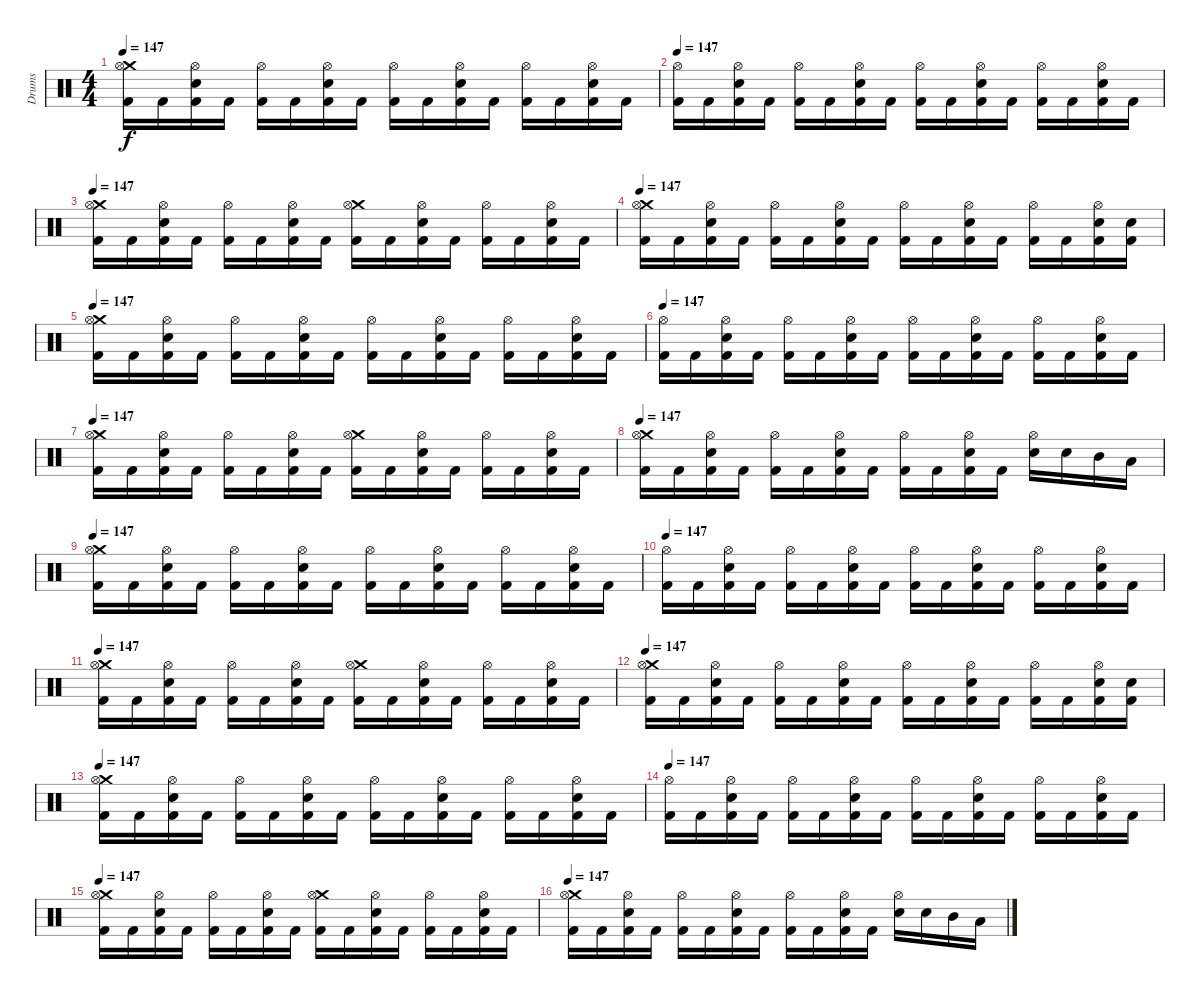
\track ("Drums" "Drums") {instrument percussion}
\staff {score}
\articulation defaults
\ts (4 4)
\tempo 147
\clef neutral
\ks c
("Crash medium (hit)" "Hi-Hat (open)" "Kick (hit) 2").16{dy f} "Kick (hit) 2".16 ("Hi-Hat (open)" "Electric Snare (hit)" "Kick (hit) 2").16 "Kick (hit) 2".16 ("Hi-Hat (open)" "Kick (hit) 2").16 "Kick (hit) 2".16 ("Hi-Hat (open)" "Electric Snare (hit)" "Kick (hit) 2").16 "Kick (hit) 2".16 ("Hi-Hat (open)" "Kick (hit) 2").16 "Kick (hit) 2".16 ("Hi-Hat (open)" "Electric Snare (hit)" "Kick (hit) 2").16 "Kick (hit) 2".16 ("Hi-Hat (open)" "Kick (hit) 2").16 "Kick (hit) 2".16 ("Hi-Hat (open)" "Electric Snare (hit)" "Kick (hit) 2").16 "Kick (hit) 2".16 |
\tempo 147
("Hi-Hat (open)" "Kick (hit) 2").16 "Kick (hit) 2".16 ("Hi-Hat (open)" "Electric Snare (hit)" "Kick (hit) 2").16 "Kick (hit) 2".16 ("Hi-Hat (open)" "Kick (hit) 2").16 "Kick (hit) 2".16 ("Hi-Hat (open)" "Electric Snare (hit)" "Kick (hit) 2").16 "Kick (hit) 2".16 ("Hi-Hat (open)" "Kick (hit) 2").16 "Kick (hit) 2".16 ("Hi-Hat (open)" "Electric Snare (hit)" "Kick (hit) 2").16 "Kick (hit) 2".16 ("Hi-Hat (open)" "Kick (hit) 2").16 "Kick (hit) 2".16 ("Hi-Hat (open)" "Electric Snare (hit)" "Kick (hit) 2").16 "Kick (hit) 2".16 |
\tempo 147
("Crash medium (hit)" "Hi-Hat (open)" "Kick (hit) 2").16 "Kick (hit) 2".16 ("Hi-Hat (open)" "Electric Snare (hit)" "Kick (hit) 2").16 "Kick (hit) 2".16 ("Hi-Hat (open)" "Kick (hit) 2").16 "Kick (hit) 2".16 ("Hi-Hat (open)" "Electric Snare (hit)" "Kick (hit) 2").16 "Kick (hit) 2".16 ("Crash medium (hit)" "Hi-Hat (open)" "Kick (hit) 2").16 "Kick (hit) 2".16 ("Hi-Hat (open)" "Electric Snare (hit)" "Kick (hit) 2").16 "Kick (hit) 2".16 ("Hi-Hat (open)" "Kick (hit) 2").16 "Kick (hit) 2".16 ("Hi-Hat (open)" "Electric Snare (hit)" "Kick (hit) 2").16 "Kick (hit) 2".16 |
\tempo 147
("Crash medium (hit)" "Hi-Hat (open)" "Kick (hit) 2").16 "Kick (hit) 2".16 ("Hi-Hat (open)" "Electric Snare (hit)" "Kick (hit) 2").16 "Kick (hit) 2".16 ("Hi-Hat (open)" "Kick (hit) 2").16 "Kick (hit) 2".16 ("Hi-Hat (open)" "Electric Snare (hit)" "Kick (hit) 2").16 "Kick (hit) 2".16 ("Hi-Hat (open)" "Kick (hit) 2").16 "Kick (hit) 2".16 ("Hi-Hat (open)" "Electric Snare (hit)" "Kick (hit) 2").16 "Kick (hit) 2".16 ("Hi-Hat (open)" "Kick (hit) 2").16 "Kick (hit) 2".16 ("Hi-Hat (open)" "Electric Snare (hit)" "Kick (hit) 2").16 ("Electric Snare (hit)" "Kick (hit) 2").16 |
\tempo 147
("Crash medium (hit)" "Hi-Hat (open)" "Kick (hit) 2").16 "Kick (hit) 2".16 ("Hi-Hat (open)" "Electric Snare (hit)" "Kick (hit) 2").16 "Kick (hit) 2".16 ("Hi-Hat (open)" "Kick (hit) 2").16 "Kick (hit) 2".16 ("Hi-Hat (open)" "Electric Snare (hit)" "Kick (hit) 2").16 "Kick (hit) 2".16 ("Hi-Hat (open)" "Kick (hit) 2").16 "Kick (hit) 2".16 ("Hi-Hat (open)" "Electric Snare (hit)" "Kick (hit) 2").16 "Kick (hit) 2".16 ("Hi-Hat (open)" "Kick (hit) 2").16 "Kick (hit) 2".16 ("Hi-Hat (open)" "Electric Snare (hit)" "Kick (hit) 2").16 "Kick (hit) 2".16 |
\tempo 147
("Hi-Hat (open)" "Kick (hit) 2").16 "Kick (hit) 2".16 ("Hi-Hat (open)" "Electric Snare (hit)" "Kick (hit) 2").16 "Kick (hit) 2".16 ("Hi-Hat (open)" "Kick (hit) 2").16 "Kick (hit) 2".16 ("Hi-Hat (open)" "Electric Snare (hit)" "Kick (hit) 2").16 "Kick (hit) 2".16 ("Hi-Hat (open)" "Kick (hit) 2").16 "Kick (hit) 2".16 ("Hi-Hat (open)" "Electric Snare (hit)" "Kick (hit) 2").16 "Kick (hit) 2".16 ("Hi-Hat (open)" "Kick (hit) 2").16 "Kick (hit) 2".16 ("Hi-Hat (open)" "Electric Snare (hit)" "Kick (hit) 2").16 "Kick (hit) 2".16 |
\tempo 147
("Crash medium (hit)" "Hi-Hat (open)" "Kick (hit) 2").16 "Kick (hit) 2".16 ("Hi-Hat (open)" "Electric Snare (hit)" "Kick (hit) 2").16 "Kick (hit) 2".16 ("Hi-Hat (open)" "Kick (hit) 2").16 "Kick (hit) 2".16 ("Hi-Hat (open)" "Electric Snare (hit)" "Kick (hit) 2").16 "Kick (hit) 2".16 ("Crash medium (hit)" "Hi-Hat (open)" "Kick (hit) 2").16 "Kick (hit) 2".16 ("Hi-Hat (open)" "Electric Snare (hit)" "Kick (hit) 2").16 "Kick (hit) 2".16 ("Hi-Hat (open)" "Kick (hit) 2").16 "Kick (hit) 2".16 ("Hi-Hat (open)" "Electric Snare (hit)" "Kick (hit) 2").16 "Kick (hit) 2".16 |
\tempo 147
("Crash medium (hit)" "Hi-Hat (open)" "Kick (hit) 2").16 "Kick (hit) 2".16 ("Hi-Hat (open)" "Electric Snare (hit)" "Kick (hit) 2").16 "Kick (hit) 2".16 ("Hi-Hat (open)" "Kick (hit) 2").16 "Kick (hit) 2".16 ("Hi-Hat (open)" "Electric Snare (hit)" "Kick (hit) 2").16 "Kick (hit) 2".16 ("Hi-Hat (open)" "Kick (hit) 2").16 "Kick (hit) 2".16 ("Hi-Hat (open)" "Electric Snare (hit)" "Kick (hit) 2").16 "Kick (hit) 2".16 ("Hi-Hat (open)" "Electric Snare (hit)").16 "Electric Snare (hit)".16 "Mid Tom (hit)".16 "Low Tom (hit)".16 |
\tempo 147
("Crash medium (hit)" "Hi-Hat (open)" "Kick (hit) 2").16 "Kick (hit) 2".16 ("Hi-Hat (open)" "Electric Snare (hit)" "Kick (hit) 2").16 "Kick (hit) 2".16 ("Hi-Hat (open)" "Kick (hit) 2").16 "Kick (hit) 2".16 ("Hi-Hat (open)" "Electric Snare (hit)" "Kick (hit) 2").16 "Kick (hit) 2".16 ("Hi-Hat (open)" "Kick (hit) 2").16 "Kick (hit) 2".16 ("Hi-Hat (open)" "Electric Snare (hit)" "Kick (hit) 2").16 "Kick (hit) 2".16 ("Hi-Hat (open)" "Kick (hit) 2").16 "Kick (hit) 2".16 ("Hi-Hat (open)" "Electric Snare (hit)" "Kick (hit) 2").16 "Kick (hit) 2".16 |
\tempo 147
("Hi-Hat (open)" "Kick (hit) 2").16 "Kick (hit) 2".16 ("Hi-Hat (open)" "Electric Snare (hit)" "Kick (hit) 2").16 "Kick (hit) 2".16 ("Hi-Hat (open)" "Kick (hit) 2").16 "Kick (hit) 2".16 ("Hi-Hat (open)" "Electric Snare (hit)" "Kick (hit) 2").16 "Kick (hit) 2".16 ("Hi-Hat (open)" "Kick (hit) 2").16 "Kick (hit) 2".16 ("Hi-Hat (open)" "Electric Snare (hit)" "Kick (hit) 2").16 "Kick (hit) 2".16 ("Hi-Hat (open)" "Kick (hit) 2").16 "Kick (hit) 2".16 ("Hi-Hat (open)" "Electric Snare (hit)" "Kick (hit) 2").16 "Kick (hit) 2".16 |
\tempo 147
("Crash medium (hit)" "Hi-Hat (open)" "Kick (hit) 2").16 "Kick (hit) 2".16 ("Hi-Hat (open)" "Electric Snare (hit)" "Kick (hit) 2").16 "Kick (hit) 2".16 ("Hi-Hat (open)" "Kick (hit) 2").16 "Kick (hit) 2".16 ("Hi-Hat (open)" "Electric Snare (hit)" "Kick (hit) 2").16 "Kick (hit) 2".16 ("Crash medium (hit)" "Hi-Hat (open)" "Kick (hit) 2").16 "Kick (hit) 2".16 ("Hi-Hat (open)" "Electric Snare (hit)" "Kick (hit) 2").16 "Kick (hit) 2".16 ("Hi-Hat (open)" "Kick (hit) 2").16 "Kick (hit) 2".16 ("Hi-Hat (open)" "Electric Snare (hit)" "Kick (hit) 2").16 "Kick (hit) 2".16 |
\tempo 147
("Crash medium (hit)" "Hi-Hat (open)" "Kick (hit) 2").16 "Kick (hit) 2".16 ("Hi-Hat (open)" "Electric Snare (hit)" "Kick (hit) 2").16 "Kick (hit) 2".16 ("Hi-Hat (open)" "Kick (hit) 2").16 "Kick (hit) 2".16 ("Hi-Hat (open)" "Electric Snare (hit)" "Kick (hit) 2").16 "Kick (hit) 2".16 ("Hi-Hat (open)" "Kick (hit) 2").16 "Kick (hit) 2".16 ("Hi-Hat (open)" "Electric Snare (hit)" "Kick (hit) 2").16 "Kick (hit) 2".16 ("Hi-Hat (open)" "Kick (hit) 2").16 "Kick (hit) 2".16 ("Hi-Hat (open)" "Electric Snare (hit)" "Kick (hit) 2").16 ("Electric Snare (hit)" "Kick (hit) 2").16 |
\tempo 147
("Crash medium (hit)" "Hi-Hat (open)" "Kick (hit) 2").16 "Kick (hit) 2".16 ("Hi-Hat (open)" "Electric Snare (hit)" "Kick (hit) 2").16 "Kick (hit) 2".16 ("Hi-Hat (open)" "Kick (hit) 2").16 "Kick (hit) 2".16 ("Hi-Hat (open)" "Electric Snare (hit)" "Kick (hit) 2").16 "Kick (hit) 2".16 ("Hi-Hat (open)" "Kick (hit) 2").16 "Kick (hit) 2".16 ("Hi-Hat (open)" "Electric Snare (hit)" "Kick (hit) 2").16 "Kick (hit) 2".16 ("Hi-Hat (open)" "Kick (hit) 2").16 "Kick (hit) 2".16 ("Hi-Hat (open)" "Electric Snare (hit)" "Kick (hit) 2").16 "Kick (hit) 2".16 |
\tempo 147
("Hi-Hat (open)" "Kick (hit) 2").16 "Kick (hit) 2".16 ("Hi-Hat (open)" "Electric Snare (hit)" "Kick (hit) 2").16 "Kick (hit) 2".16 ("Hi-Hat (open)" "Kick (hit) 2").16 "Kick (hit) 2".16 ("Hi-Hat (open)" "Electric Snare (hit)" "Kick (hit) 2").16 "Kick (hit) 2".16 ("Hi-Hat (open)" "Kick (hit) 2").16 "Kick (hit) 2".16 ("Hi-Hat (open)" "Electric Snare (hit)" "Kick (hit) 2").16 "Kick (hit) 2".16 ("Hi-Hat (open)" "Kick (hit) 2").16 "Kick (hit) 2".16 ("Hi-Hat (open)" "Electric Snare (hit)" "Kick (hit) 2").16 "Kick (hit) 2".16 |
\tempo 147
("Crash medium (hit)" "Hi-Hat (open)" "Kick (hit) 2").16 "Kick (hit) 2".16 ("Hi-Hat (open)" "Electric Snare (hit)" "Kick (hit) 2").16 "Kick (hit) 2".16 ("Hi-Hat (open)" "Kick (hit) 2").16 "Kick (hit) 2".16 ("Hi-Hat (open)" "Electric Snare (hit)" "Kick (hit) 2").16 "Kick (hit) 2".16 ("Crash medium (hit)" "Hi-Hat (open)" "Kick (hit) 2").16 "Kick (hit) 2".16 ("Hi-Hat (open)" "Electric Snare (hit)" "Kick (hit) 2").16 "Kick (hit) 2".16 ("Hi-Hat (open)" "Kick (hit) 2").16 "Kick (hit) 2".16 ("Hi-Hat (open)" "Electric Snare (hit)" "Kick (hit) 2").16 "Kick (hit) 2".16 |
\tempo 147
("Crash medium (hit)" "Hi-Hat (open)" "Kick (hit) 2").16 "Kick (hit) 2".16 ("Hi-Hat (open)" "Electric Snare (hit)" "Kick (hit) 2").16 "Kick (hit) 2".16 ("Hi-Hat (open)" "Kick (hit) 2").16 "Kick (hit) 2".16 ("Hi-Hat (open)" "Electric Snare (hit)" "Kick (hit) 2").16 "Kick (hit) 2".16 ("Hi-Hat (open)" "Kick (hit) 2").16 "Kick (hit) 2".16 ("Hi-Hat (open)" "Electric Snare (hit)" "Kick (hit) 2").16 "Kick (hit) 2".16 ("Hi-Hat (open)" "Electric Snare (hit)").16 "Electric Snare (hit)".16 "Mid Tom (hit)".16 "Low Tom (hit)".16
